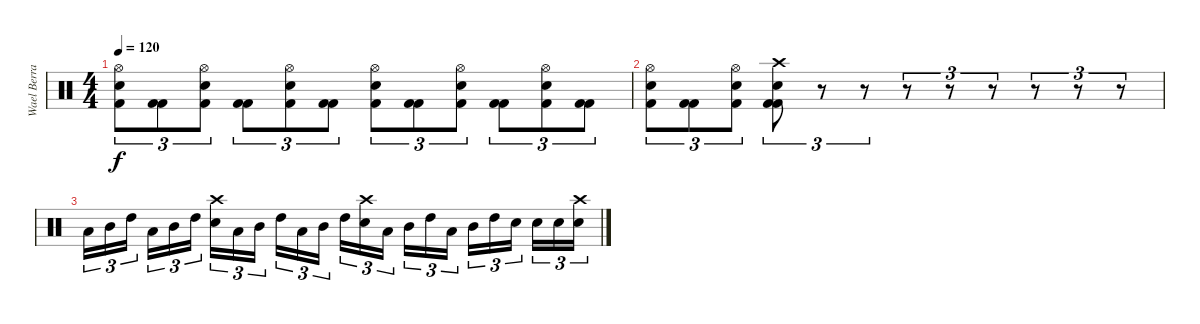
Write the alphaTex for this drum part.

\track ("Wael Berrais" "Wael Berra") {instrument percussion}
\staff {score}
\articulation defaults
\ts (4 4)
\tempo 120
\clef neutral
\ks c
("Electric Snare (hit)" "Kick (hit) 2" "Hi-Hat (open)").8{tu (3 2) dy f} ("Kick (hit) 2" "Kick (hit) 2").8{tu (3 2)} ("Electric Snare (hit)" "Kick (hit) 2" "Hi-Hat (open)").8{tu (3 2)} ("Kick (hit) 2" "Kick (hit) 2").8{tu (3 2)} ("Electric Snare (hit)" "Kick (hit) 2" "Hi-Hat (open)").8{tu (3 2)} ("Kick (hit) 2" "Kick (hit) 2").8{tu (3 2)} ("Electric Snare (hit)" "Kick (hit) 2" "Hi-Hat (open)").8{tu (3 2)} ("Kick (hit) 2" "Kick (hit) 2").8{tu (3 2)} ("Electric Snare (hit)" "Kick (hit) 2" "Hi-Hat (open)").8{tu (3 2)} ("Kick (hit) 2" "Kick (hit) 2").8{tu (3 2)} ("Electric Snare (hit)" "Kick (hit) 2" "Hi-Hat (open)").8{tu (3 2)} ("Kick (hit) 2" "Kick (hit) 2").8{tu (3 2)} |
("Electric Snare (hit)" "Kick (hit) 2" "Hi-Hat (open)").8{tu (3 2)} ("Kick (hit) 2" "Kick (hit) 2").8{tu (3 2)} ("Electric Snare (hit)" "Kick (hit) 2" "Hi-Hat (open)").8{tu (3 2)} ("Electric Snare (hit)" "Kick (hit) 2" "Kick (hit) 2" "Crash high (hit)").8{tu (3 2)} r.8{tu (3 2)} r.8{tu (3 2)} r.8{tu (3 2)} r.8{tu (3 2)} r.8{tu (3 2)} r.8{tu (3 2)} r.8{tu (3 2)} r.8{tu (3 2)} |
"Low Tom (hit)".16{tu (3 2)} "Mid Tom (hit)".16{tu (3 2)} "High Tom (hit)".16{tu (3 2)} "Low Tom (hit)".16{tu (3 2)} "Mid Tom (hit)".16{tu (3 2)} "High Tom (hit)".16{tu (3 2)} ("Electric Snare (hit)" "Crash high (hit)").16{tu (3 2)} "Low Tom (hit)".16{tu (3 2)} "Mid Tom (hit)".16{tu (3 2)} "High Tom (hit)".16{tu (3 2)} "Low Tom (hit)".16{tu (3 2)} "Mid Tom (hit)".16{tu (3 2)} "High Tom (hit)".16{tu (3 2)} ("Electric Snare (hit)" "Crash high (hit)").16{tu (3 2)} "Low Tom (hit)".16{tu (3 2)} "Mid Tom (hit)".16{tu (3 2)} "High Tom (hit)".16{tu (3 2)} "Low Tom (hit)".16{tu (3 2)} "Mid Tom (hit)".16{tu (3 2)} "High Tom (hit)".16{tu (3 2)} "Electric Snare (hit)".16{tu (3 2)} "Electric Snare (hit)".16{tu (3 2)} "Electric Snare (hit)".16{tu (3 2)} ("Electric Snare (hit)" "Crash high (hit)").16{tu (3 2)}
